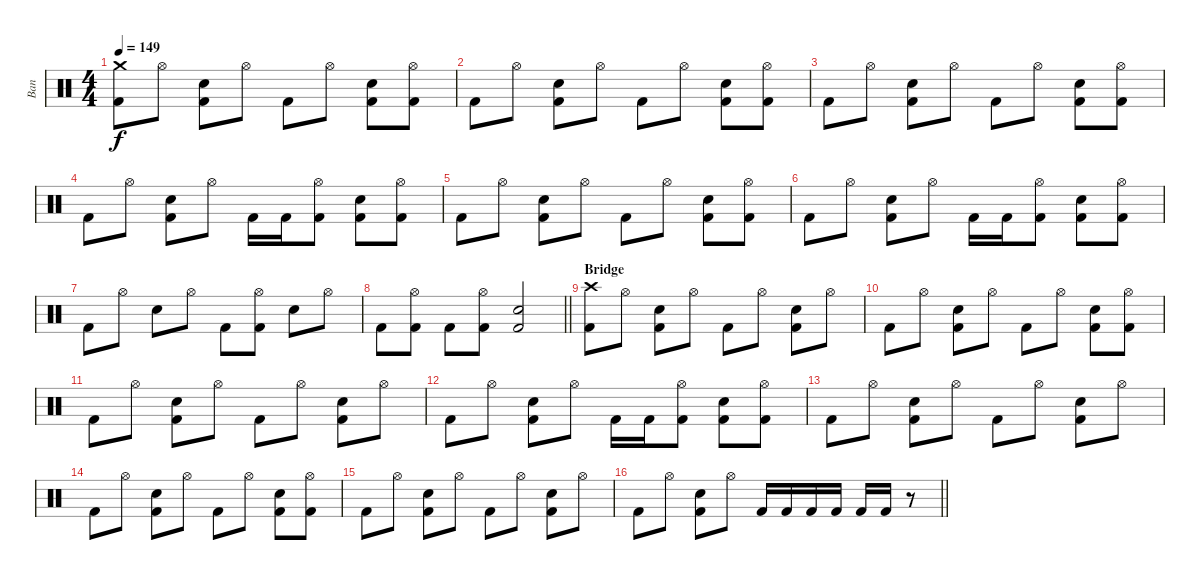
\track ("Ban" "Ban") {instrument percussion}
\staff {score}
\articulation defaults
\ts (4 4)
\tempo 149
\clef neutral
\ks c
("Crash medium (hit)" "Kick (hit) 2").8{dy f} "Hi-Hat (open)".8 ("Electric Snare (hit)" "Kick (hit) 2").8 "Hi-Hat (open)".8 "Kick (hit) 2".8 "Hi-Hat (open)".8 ("Electric Snare (hit)" "Kick (hit) 2").8 ("Hi-Hat (open)" "Kick (hit) 2").8 |
"Kick (hit) 2".8 "Hi-Hat (open)".8 ("Electric Snare (hit)" "Kick (hit) 2").8 "Hi-Hat (open)".8 "Kick (hit) 2".8 "Hi-Hat (open)".8 ("Electric Snare (hit)" "Kick (hit) 2").8 ("Hi-Hat (open)" "Kick (hit) 2").8 |
"Kick (hit) 2".8 "Hi-Hat (open)".8 ("Electric Snare (hit)" "Kick (hit) 2").8 "Hi-Hat (open)".8 "Kick (hit) 2".8 "Hi-Hat (open)".8 ("Electric Snare (hit)" "Kick (hit) 2").8 ("Hi-Hat (open)" "Kick (hit) 2").8 |
"Kick (hit) 2".8 "Hi-Hat (open)".8 ("Electric Snare (hit)" "Kick (hit) 2").8 "Hi-Hat (open)".8 "Kick (hit) 2".16 "Kick (hit) 2".16 ("Hi-Hat (open)" "Kick (hit) 2").8 ("Electric Snare (hit)" "Kick (hit) 2").8 ("Hi-Hat (open)" "Kick (hit) 2").8 |
"Kick (hit) 2".8 "Hi-Hat (open)".8 ("Electric Snare (hit)" "Kick (hit) 2").8 "Hi-Hat (open)".8 "Kick (hit) 2".8 "Hi-Hat (open)".8 ("Electric Snare (hit)" "Kick (hit) 2").8 ("Hi-Hat (open)" "Kick (hit) 2").8 |
"Kick (hit) 2".8 "Hi-Hat (open)".8 ("Electric Snare (hit)" "Kick (hit) 2").8 "Hi-Hat (open)".8 "Kick (hit) 2".16 "Kick (hit) 2".16 ("Hi-Hat (open)" "Kick (hit) 2").8 ("Electric Snare (hit)" "Kick (hit) 2").8 ("Hi-Hat (open)" "Kick (hit) 2").8 |
"Kick (hit) 2".8 "Hi-Hat (open)".8 "Electric Snare (hit)".8 "Hi-Hat (open)".8 "Kick (hit) 2".8 ("Hi-Hat (open)" "Kick (hit) 2").8 "Electric Snare (hit)".8 "Hi-Hat (open)".8 |
\barLineRight lightlight "Kick (hit) 2".8
("Hi-Hat (open)" "Kick (hit) 2").8 "Kick (hit) 2".8 ("Hi-Hat (open)" "Kick (hit) 2").8 ("Electric Snare (hit)" "Kick (hit) 2").2 |
\section ("" "Bridge")
("Crash high (hit)" "Kick (hit) 2").8 "Hi-Hat (open)".8 ("Electric Snare (hit)" "Kick (hit) 2").8 "Hi-Hat (open)".8 "Kick (hit) 2".8 "Hi-Hat (open)".8 ("Electric Snare (hit)" "Kick (hit) 2").8 "Hi-Hat (open)".8 |
"Kick (hit) 2".8 "Hi-Hat (open)".8 ("Electric Snare (hit)" "Kick (hit) 2").8 "Hi-Hat (open)".8 "Kick (hit) 2".8 "Hi-Hat (open)".8 ("Electric Snare (hit)" "Kick (hit) 2").8 ("Hi-Hat (open)" "Kick (hit) 2").8 |
"Kick (hit) 2".8 "Hi-Hat (open)".8 ("Electric Snare (hit)" "Kick (hit) 2").8 "Hi-Hat (open)".8 "Kick (hit) 2".8 "Hi-Hat (open)".8 ("Electric Snare (hit)" "Kick (hit) 2").8 "Hi-Hat (open)".8 |
"Kick (hit) 2".8 "Hi-Hat (open)".8 ("Electric Snare (hit)" "Kick (hit) 2").8 "Hi-Hat (open)".8 "Kick (hit) 2".16 "Kick (hit) 2".16 ("Hi-Hat (open)" "Kick (hit) 2").8 ("Electric Snare (hit)" "Kick (hit) 2").8 ("Hi-Hat (open)" "Kick (hit) 2").8 |
"Kick (hit) 2".8 "Hi-Hat (open)".8 ("Electric Snare (hit)" "Kick (hit) 2").8 "Hi-Hat (open)".8 "Kick (hit) 2".8 "Hi-Hat (open)".8 ("Electric Snare (hit)" "Kick (hit) 2").8 "Hi-Hat (open)".8 |
"Kick (hit) 2".8 "Hi-Hat (open)".8 ("Electric Snare (hit)" "Kick (hit) 2").8 "Hi-Hat (open)".8 "Kick (hit) 2".8 "Hi-Hat (open)".8 ("Electric Snare (hit)" "Kick (hit) 2").8 ("Hi-Hat (open)" "Kick (hit) 2").8 |
"Kick (hit) 2".8 "Hi-Hat (open)".8 ("Electric Snare (hit)" "Kick (hit) 2").8 "Hi-Hat (open)".8 "Kick (hit) 2".8 "Hi-Hat (open)".8 ("Electric Snare (hit)" "Kick (hit) 2").8 "Hi-Hat (open)".8 |
\barLineRight lightlight "Kick (hit) 2".8 "Hi-Hat (open)".8
("Electric Snare (hit)" "Kick (hit) 2").8 "Hi-Hat (open)".8 "Kick (hit) 2".16 "Kick (hit) 2".16 "Kick (hit) 2".16 "Kick (hit) 2".16 "Kick (hit) 2".16 "Kick (hit) 2".16 r.8
